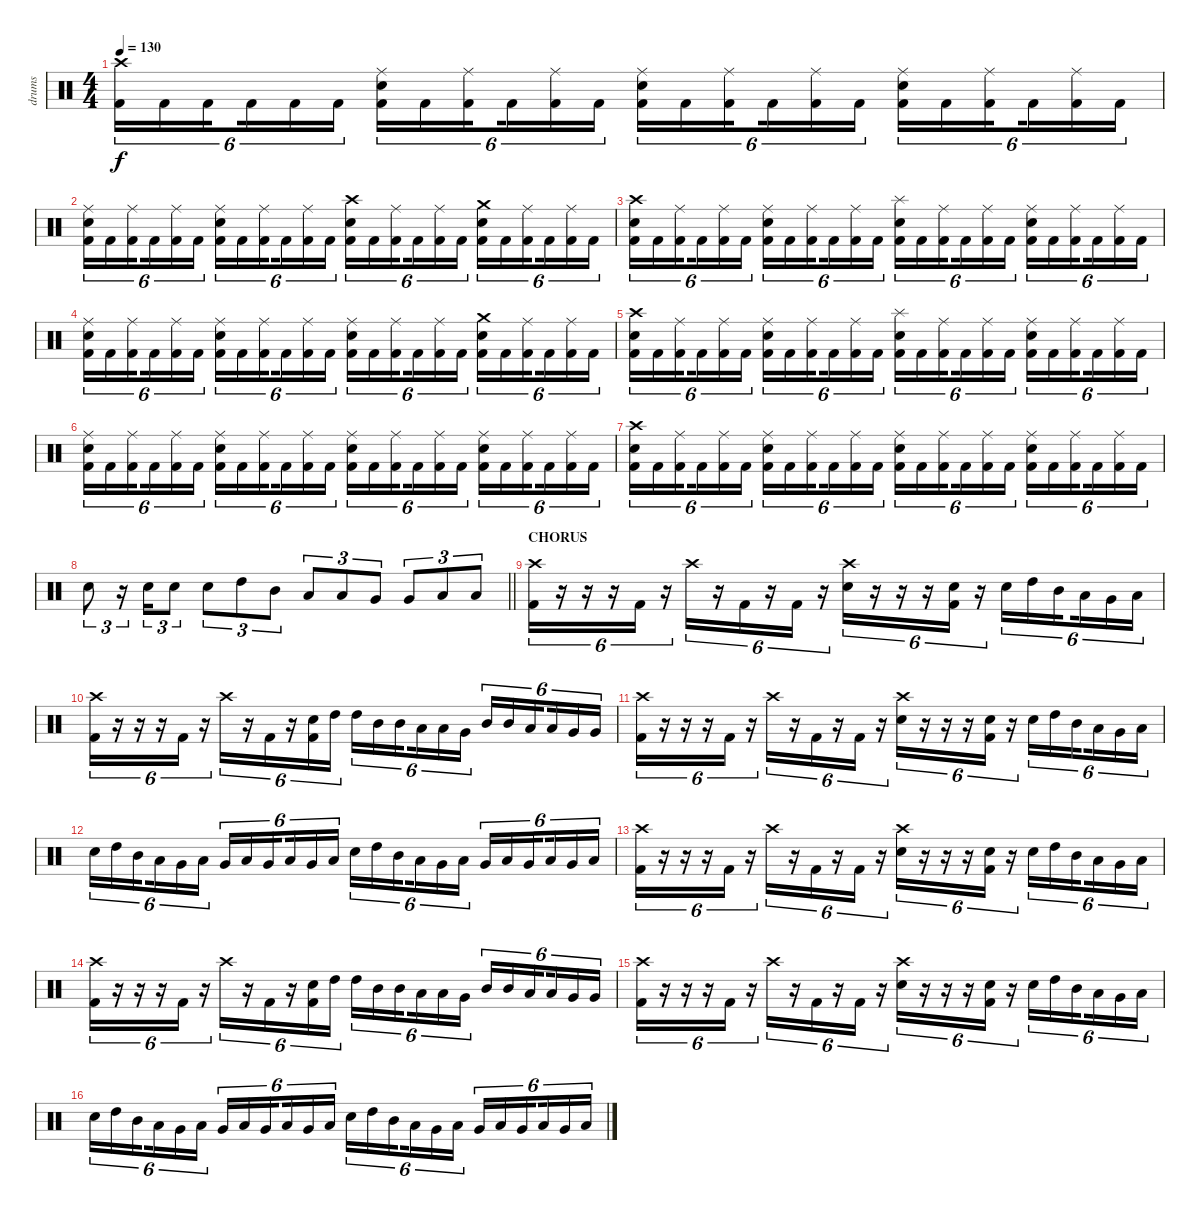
\track ("drums" "drums") {instrument percussion}
\staff {score}
\articulation defaults
\ts (4 4)
\tempo 130
\clef neutral
\ks c
("Crash high (hit)" "Kick (hit) 2").16{tu (6 4) dy f} "Kick (hit) 2".16{tu (6 4)} "Kick (hit) 2".16{tu (6 4) beam splitsecondary} "Kick (hit) 2".16{tu (6 4)} "Kick (hit) 2".16{tu (6 4)} "Kick (hit) 2".16{tu (6 4)} ("Ride (middle)" "Electric Snare (hit)" "Kick (hit) 2").16{tu (6 4)} "Kick (hit) 2".16{tu (6 4)} ("Ride (middle)" "Kick (hit) 2").16{tu (6 4) beam splitsecondary} "Kick (hit) 2".16{tu (6 4)} ("Ride (middle)" "Kick (hit) 2").16{tu (6 4)} "Kick (hit) 2".16{tu (6 4)} ("Ride (middle)" "Electric Snare (hit)" "Kick (hit) 2").16{tu (6 4)} "Kick (hit) 2".16{tu (6 4)} ("Ride (middle)" "Kick (hit) 2").16{tu (6 4) beam splitsecondary} "Kick (hit) 2".16{tu (6 4)} ("Ride (middle)" "Kick (hit) 2").16{tu (6 4)} "Kick (hit) 2".16{tu (6 4)} ("Ride (middle)" "Electric Snare (hit)" "Kick (hit) 2").16{tu (6 4)} "Kick (hit) 2".16{tu (6 4)} ("Ride (middle)" "Kick (hit) 2").16{tu (6 4) beam splitsecondary} "Kick (hit) 2".16{tu (6 4)} ("Ride (middle)" "Kick (hit) 2").16{tu (6 4)} "Kick (hit) 2".16{tu (6 4)} |
("Ride (middle)" "Electric Snare (hit)" "Kick (hit) 2").16{tu (6 4)} "Kick (hit) 2".16{tu (6 4)} ("Ride (middle)" "Kick (hit) 2").16{tu (6 4) beam splitsecondary} "Kick (hit) 2".16{tu (6 4)} ("Ride (middle)" "Kick (hit) 2").16{tu (6 4)} "Kick (hit) 2".16{tu (6 4)} ("Ride (middle)" "Electric Snare (hit)" "Kick (hit) 2").16{tu (6 4)} "Kick (hit) 2".16{tu (6 4)} ("Ride (middle)" "Kick (hit) 2").16{tu (6 4) beam splitsecondary} "Kick (hit) 2".16{tu (6 4)} ("Ride (middle)" "Kick (hit) 2").16{tu (6 4)} "Kick (hit) 2".16{tu (6 4)} ("Crash high (hit)" "Electric Snare (hit)" "Kick (hit) 2").16{tu (6 4)} "Kick (hit) 2".16{tu (6 4)} ("Ride (middle)" "Kick (hit) 2").16{tu (6 4) beam splitsecondary} "Kick (hit) 2".16{tu (6 4)} ("Ride (middle)" "Kick (hit) 2").16{tu (6 4)} "Kick (hit) 2".16{tu (6 4)} ("Crash medium (hit)" "Electric Snare (hit)" "Kick (hit) 2").16{tu (6 4)} "Kick (hit) 2".16{tu (6 4)} ("Ride (middle)" "Kick (hit) 2").16{tu (6 4) beam splitsecondary} "Kick (hit) 2".16{tu (6 4)} ("Ride (middle)" "Kick (hit) 2").16{tu (6 4)} "Kick (hit) 2".16{tu (6 4)} |
("Crash high (hit)" "Electric Snare (hit)" "Kick (hit) 2").16{tu (6 4)} "Kick (hit) 2".16{tu (6 4)} ("Ride (middle)" "Kick (hit) 2").16{tu (6 4) beam splitsecondary} "Kick (hit) 2".16{tu (6 4)} ("Ride (middle)" "Kick (hit) 2").16{tu (6 4)} "Kick (hit) 2".16{tu (6 4)} ("Ride (middle)" "Electric Snare (hit)" "Kick (hit) 2").16{tu (6 4)} "Kick (hit) 2".16{tu (6 4)} ("Ride (middle)" "Kick (hit) 2").16{tu (6 4) beam splitsecondary} "Kick (hit) 2".16{tu (6 4)} ("Ride (middle)" "Kick (hit) 2").16{tu (6 4)} "Kick (hit) 2".16{tu (6 4)} ("Splash (hit)" "Electric Snare (hit)" "Kick (hit) 2").16{tu (6 4)} "Kick (hit) 2".16{tu (6 4)} ("Ride (middle)" "Kick (hit) 2").16{tu (6 4) beam splitsecondary} "Kick (hit) 2".16{tu (6 4)} ("Ride (middle)" "Kick (hit) 2").16{tu (6 4)} "Kick (hit) 2".16{tu (6 4)} ("Ride (middle)" "Electric Snare (hit)" "Kick (hit) 2").16{tu (6 4)} "Kick (hit) 2".16{tu (6 4)} ("Ride (middle)" "Kick (hit) 2").16{tu (6 4) beam splitsecondary} "Kick (hit) 2".16{tu (6 4)} ("Ride (middle)" "Kick (hit) 2").16{tu (6 4)} "Kick (hit) 2".16{tu (6 4)} |
("Ride (middle)" "Electric Snare (hit)" "Kick (hit) 2").16{tu (6 4)} "Kick (hit) 2".16{tu (6 4)} ("Ride (middle)" "Kick (hit) 2").16{tu (6 4) beam splitsecondary} "Kick (hit) 2".16{tu (6 4)} ("Ride (middle)" "Kick (hit) 2").16{tu (6 4)} "Kick (hit) 2".16{tu (6 4)} ("Ride (middle)" "Electric Snare (hit)" "Kick (hit) 2").16{tu (6 4)} "Kick (hit) 2".16{tu (6 4)} ("Ride (middle)" "Kick (hit) 2").16{tu (6 4) beam splitsecondary} "Kick (hit) 2".16{tu (6 4)} ("Ride (middle)" "Kick (hit) 2").16{tu (6 4)} "Kick (hit) 2".16{tu (6 4)} ("Ride (middle)" "Electric Snare (hit)" "Kick (hit) 2").16{tu (6 4)} "Kick (hit) 2".16{tu (6 4)} ("Ride (middle)" "Kick (hit) 2").16{tu (6 4) beam splitsecondary} "Kick (hit) 2".16{tu (6 4)} ("Ride (middle)" "Kick (hit) 2").16{tu (6 4)} "Kick (hit) 2".16{tu (6 4)} ("Crash medium (hit)" "Electric Snare (hit)" "Kick (hit) 2").16{tu (6 4)} "Kick (hit) 2".16{tu (6 4)} ("Ride (middle)" "Kick (hit) 2").16{tu (6 4) beam splitsecondary} "Kick (hit) 2".16{tu (6 4)} ("Ride (middle)" "Kick (hit) 2").16{tu (6 4)} "Kick (hit) 2".16{tu (6 4)} |
("Crash high (hit)" "Electric Snare (hit)" "Kick (hit) 2").16{tu (6 4)} "Kick (hit) 2".16{tu (6 4)} ("Ride (middle)" "Kick (hit) 2").16{tu (6 4) beam splitsecondary} "Kick (hit) 2".16{tu (6 4)} ("Ride (middle)" "Kick (hit) 2").16{tu (6 4)} "Kick (hit) 2".16{tu (6 4)} ("Ride (middle)" "Electric Snare (hit)" "Kick (hit) 2").16{tu (6 4)} "Kick (hit) 2".16{tu (6 4)} ("Ride (middle)" "Kick (hit) 2").16{tu (6 4) beam splitsecondary} "Kick (hit) 2".16{tu (6 4)} ("Ride (middle)" "Kick (hit) 2").16{tu (6 4)} "Kick (hit) 2".16{tu (6 4)} ("Splash (hit)" "Electric Snare (hit)" "Kick (hit) 2").16{tu (6 4)} "Kick (hit) 2".16{tu (6 4)} ("Ride (middle)" "Kick (hit) 2").16{tu (6 4) beam splitsecondary} "Kick (hit) 2".16{tu (6 4)} ("Ride (middle)" "Kick (hit) 2").16{tu (6 4)} "Kick (hit) 2".16{tu (6 4)} ("Ride (middle)" "Electric Snare (hit)" "Kick (hit) 2").16{tu (6 4)} "Kick (hit) 2".16{tu (6 4)} ("Ride (middle)" "Kick (hit) 2").16{tu (6 4) beam splitsecondary} "Kick (hit) 2".16{tu (6 4)} ("Ride (middle)" "Kick (hit) 2").16{tu (6 4)} "Kick (hit) 2".16{tu (6 4)} |
("Ride (middle)" "Electric Snare (hit)" "Kick (hit) 2").16{tu (6 4)} "Kick (hit) 2".16{tu (6 4)} ("Ride (middle)" "Kick (hit) 2").16{tu (6 4) beam splitsecondary} "Kick (hit) 2".16{tu (6 4)} ("Ride (middle)" "Kick (hit) 2").16{tu (6 4)} "Kick (hit) 2".16{tu (6 4)} ("Ride (middle)" "Electric Snare (hit)" "Kick (hit) 2").16{tu (6 4)} "Kick (hit) 2".16{tu (6 4)} ("Ride (middle)" "Kick (hit) 2").16{tu (6 4) beam splitsecondary} "Kick (hit) 2".16{tu (6 4)} ("Ride (middle)" "Kick (hit) 2").16{tu (6 4)} "Kick (hit) 2".16{tu (6 4)} ("Ride (middle)" "Electric Snare (hit)" "Kick (hit) 2").16{tu (6 4)} "Kick (hit) 2".16{tu (6 4)} ("Ride (middle)" "Kick (hit) 2").16{tu (6 4) beam splitsecondary} "Kick (hit) 2".16{tu (6 4)} ("Ride (middle)" "Kick (hit) 2").16{tu (6 4)} "Kick (hit) 2".16{tu (6 4)} ("Ride (middle)" "Electric Snare (hit)" "Kick (hit) 2").16{tu (6 4)} "Kick (hit) 2".16{tu (6 4)} ("Ride (middle)" "Kick (hit) 2").16{tu (6 4) beam splitsecondary} "Kick (hit) 2".16{tu (6 4)} ("Ride (middle)" "Kick (hit) 2").16{tu (6 4)} "Kick (hit) 2".16{tu (6 4)} |
("Crash high (hit)" "Electric Snare (hit)" "Kick (hit) 2").16{tu (6 4)} "Kick (hit) 2".16{tu (6 4)} ("Ride (middle)" "Kick (hit) 2").16{tu (6 4) beam splitsecondary} "Kick (hit) 2".16{tu (6 4)} ("Ride (middle)" "Kick (hit) 2").16{tu (6 4)} "Kick (hit) 2".16{tu (6 4)} ("Ride (middle)" "Electric Snare (hit)" "Kick (hit) 2").16{tu (6 4)} "Kick (hit) 2".16{tu (6 4)} ("Ride (middle)" "Kick (hit) 2").16{tu (6 4) beam splitsecondary} "Kick (hit) 2".16{tu (6 4)} ("Ride (middle)" "Kick (hit) 2").16{tu (6 4)} "Kick (hit) 2".16{tu (6 4)} ("Ride (middle)" "Electric Snare (hit)" "Kick (hit) 2").16{tu (6 4)} "Kick (hit) 2".16{tu (6 4)} ("Ride (middle)" "Kick (hit) 2").16{tu (6 4) beam splitsecondary} "Kick (hit) 2".16{tu (6 4)} ("Ride (middle)" "Kick (hit) 2").16{tu (6 4)} "Kick (hit) 2".16{tu (6 4)} ("Ride (middle)" "Electric Snare (hit)" "Kick (hit) 2").16{tu (6 4)} "Kick (hit) 2".16{tu (6 4)} ("Ride (middle)" "Kick (hit) 2").16{tu (6 4) beam splitsecondary} "Kick (hit) 2".16{tu (6 4)} ("Ride (middle)" "Kick (hit) 2").16{tu (6 4)} "Kick (hit) 2".16{tu (6 4)} |
\barLineRight lightlight "Electric Snare (hit)".8{tu (3 2)}
r.16{tu (3 2)} "Electric Snare (hit)".16{tu (3 2)} "Electric Snare (hit)".8{tu (3 2)} "Electric Snare (hit)".8{tu (3 2)} "High Tom (hit)".8{tu (3 2)} "Mid Tom (hit)".8{tu (3 2)} "Low Tom (hit)".8{tu (3 2)} "Low Tom (hit)".8{tu (3 2)} "Very Low Tom (hit)".8{tu (3 2)} "Very Low Tom (hit)".8{tu (3 2)} "Low Floor Tom (hit)".8{tu (3 2)} "Low Floor Tom (hit)".8{tu (3 2)} |
\section ("" "CHORUS")
("Crash high (hit)" "Kick (hit) 2").16{tu (6 4)} r.16{tu (6 4)} r.16{tu (6 4)} r.16{tu (6 4)} "Kick (hit) 2".16{tu (6 4)} r.16{tu (6 4)} "Crash high (hit)".16{tu (6 4)} r.16{tu (6 4)} "Kick (hit) 2".16{tu (6 4)} r.16{tu (6 4)} "Kick (hit) 2".16{tu (6 4)} r.16{tu (6 4)} ("Crash high (hit)" "Electric Snare (hit)").16{tu (6 4)} r.16{tu (6 4)} r.16{tu (6 4)} r.16{tu (6 4)} ("Electric Snare (hit)" "Kick (hit) 2").16{tu (6 4)} r.16{tu (6 4)} "Electric Snare (hit)".16{tu (6 4)} "High Tom (hit)".16{tu (6 4)} "Mid Tom (hit)".16{tu (6 4) beam splitsecondary} "Low Tom (hit)".16{tu (6 4)} "Very Low Tom (hit)".16{tu (6 4)} "Low Floor Tom (hit)".16{tu (6 4)} |
("Crash high (hit)" "Kick (hit) 2").16{tu (6 4)} r.16{tu (6 4)} r.16{tu (6 4)} r.16{tu (6 4)} "Kick (hit) 2".16{tu (6 4)} r.16{tu (6 4)} "Crash high (hit)".16{tu (6 4)} r.16{tu (6 4)} "Kick (hit) 2".16{tu (6 4)} r.16{tu (6 4)} ("Electric Snare (hit)" "Kick (hit) 2").16{tu (6 4)} "High Tom (hit)".16{tu (6 4)} "High Tom (hit)".16{tu (6 4)} "Mid Tom (hit)".16{tu (6 4)} "Mid Tom (hit)".16{tu (6 4) beam splitsecondary} "Low Tom (hit)".16{tu (6 4)} "Low Tom (hit)".16{tu (6 4)} "Very Low Tom (hit)".16{tu (6 4)} "Mid Tom (hit)".16{tu (6 4)} "Mid Tom (hit)".16{tu (6 4)} "Low Tom (hit)".16{tu (6 4) beam splitsecondary} "Low Tom (hit)".16{tu (6 4)} "Very Low Tom (hit)".16{tu (6 4)} "Very Low Tom (hit)".16{tu (6 4)} |
("Crash high (hit)" "Kick (hit) 2").16{tu (6 4)} r.16{tu (6 4)} r.16{tu (6 4)} r.16{tu (6 4)} "Kick (hit) 2".16{tu (6 4)} r.16{tu (6 4)} "Crash high (hit)".16{tu (6 4)} r.16{tu (6 4)} "Kick (hit) 2".16{tu (6 4)} r.16{tu (6 4)} "Kick (hit) 2".16{tu (6 4)} r.16{tu (6 4)} ("Crash high (hit)" "Electric Snare (hit)").16{tu (6 4)} r.16{tu (6 4)} r.16{tu (6 4)} r.16{tu (6 4)} ("Electric Snare (hit)" "Kick (hit) 2").16{tu (6 4)} r.16{tu (6 4)} "Electric Snare (hit)".16{tu (6 4)} "High Tom (hit)".16{tu (6 4)} "Mid Tom (hit)".16{tu (6 4) beam splitsecondary} "Low Tom (hit)".16{tu (6 4)} "Very Low Tom (hit)".16{tu (6 4)} "Low Floor Tom (hit)".16{tu (6 4)} |
"Electric Snare (hit)".16{tu (6 4)} "High Tom (hit)".16{tu (6 4)} "Mid Tom (hit)".16{tu (6 4) beam splitsecondary} "Low Tom (hit)".16{tu (6 4)} "Very Low Tom (hit)".16{tu (6 4)} "Low Floor Tom (hit)".16{tu (6 4)} "Very Low Tom (hit)".16{tu (6 4)} "Low Tom (hit)".16{tu (6 4)} "Very Low Tom (hit)".16{tu (6 4) beam splitsecondary} "Low Floor Tom (hit)".16{tu (6 4)} "Very Low Tom (hit)".16{tu (6 4)} "Low Tom (hit)".16{tu (6 4)} "Electric Snare (hit)".16{tu (6 4)} "High Tom (hit)".16{tu (6 4)} "Mid Tom (hit)".16{tu (6 4) beam splitsecondary} "Low Tom (hit)".16{tu (6 4)} "Very Low Tom (hit)".16{tu (6 4)} "Low Floor Tom (hit)".16{tu (6 4)} "Very Low Tom (hit)".16{tu (6 4)} "Low Tom (hit)".16{tu (6 4)} "Very Low Tom (hit)".16{tu (6 4) beam splitsecondary} "Low Floor Tom (hit)".16{tu (6 4)} "Very Low Tom (hit)".16{tu (6 4)} "Low Tom (hit)".16{tu (6 4)} |
("Crash high (hit)" "Kick (hit) 2").16{tu (6 4)} r.16{tu (6 4)} r.16{tu (6 4)} r.16{tu (6 4)} "Kick (hit) 2".16{tu (6 4)} r.16{tu (6 4)} "Crash high (hit)".16{tu (6 4)} r.16{tu (6 4)} "Kick (hit) 2".16{tu (6 4)} r.16{tu (6 4)} "Kick (hit) 2".16{tu (6 4)} r.16{tu (6 4)} ("Crash high (hit)" "Electric Snare (hit)").16{tu (6 4)} r.16{tu (6 4)} r.16{tu (6 4)} r.16{tu (6 4)} ("Electric Snare (hit)" "Kick (hit) 2").16{tu (6 4)} r.16{tu (6 4)} "Electric Snare (hit)".16{tu (6 4)} "High Tom (hit)".16{tu (6 4)} "Mid Tom (hit)".16{tu (6 4) beam splitsecondary} "Low Tom (hit)".16{tu (6 4)} "Very Low Tom (hit)".16{tu (6 4)} "Low Floor Tom (hit)".16{tu (6 4)} |
("Crash high (hit)" "Kick (hit) 2").16{tu (6 4)} r.16{tu (6 4)} r.16{tu (6 4)} r.16{tu (6 4)} "Kick (hit) 2".16{tu (6 4)} r.16{tu (6 4)} "Crash high (hit)".16{tu (6 4)} r.16{tu (6 4)} "Kick (hit) 2".16{tu (6 4)} r.16{tu (6 4)} ("Electric Snare (hit)" "Kick (hit) 2").16{tu (6 4)} "High Tom (hit)".16{tu (6 4)} "High Tom (hit)".16{tu (6 4)} "Mid Tom (hit)".16{tu (6 4)} "Mid Tom (hit)".16{tu (6 4) beam splitsecondary} "Low Tom (hit)".16{tu (6 4)} "Low Tom (hit)".16{tu (6 4)} "Very Low Tom (hit)".16{tu (6 4)} "Mid Tom (hit)".16{tu (6 4)} "Mid Tom (hit)".16{tu (6 4)} "Low Tom (hit)".16{tu (6 4) beam splitsecondary} "Low Tom (hit)".16{tu (6 4)} "Very Low Tom (hit)".16{tu (6 4)} "Very Low Tom (hit)".16{tu (6 4)} |
("Crash high (hit)" "Kick (hit) 2").16{tu (6 4)} r.16{tu (6 4)} r.16{tu (6 4)} r.16{tu (6 4)} "Kick (hit) 2".16{tu (6 4)} r.16{tu (6 4)} "Crash high (hit)".16{tu (6 4)} r.16{tu (6 4)} "Kick (hit) 2".16{tu (6 4)} r.16{tu (6 4)} "Kick (hit) 2".16{tu (6 4)} r.16{tu (6 4)} ("Crash high (hit)" "Electric Snare (hit)").16{tu (6 4)} r.16{tu (6 4)} r.16{tu (6 4)} r.16{tu (6 4)} ("Electric Snare (hit)" "Kick (hit) 2").16{tu (6 4)} r.16{tu (6 4)} "Electric Snare (hit)".16{tu (6 4)} "High Tom (hit)".16{tu (6 4)} "Mid Tom (hit)".16{tu (6 4) beam splitsecondary} "Low Tom (hit)".16{tu (6 4)} "Very Low Tom (hit)".16{tu (6 4)} "Low Floor Tom (hit)".16{tu (6 4)} |
"Electric Snare (hit)".16{tu (6 4)} "High Tom (hit)".16{tu (6 4)} "Mid Tom (hit)".16{tu (6 4) beam splitsecondary} "Low Tom (hit)".16{tu (6 4)} "Very Low Tom (hit)".16{tu (6 4)} "Low Floor Tom (hit)".16{tu (6 4)} "Very Low Tom (hit)".16{tu (6 4)} "Low Tom (hit)".16{tu (6 4)} "Very Low Tom (hit)".16{tu (6 4) beam splitsecondary} "Low Floor Tom (hit)".16{tu (6 4)} "Very Low Tom (hit)".16{tu (6 4)} "Low Tom (hit)".16{tu (6 4)} "Electric Snare (hit)".16{tu (6 4)} "High Tom (hit)".16{tu (6 4)} "Mid Tom (hit)".16{tu (6 4) beam splitsecondary} "Low Tom (hit)".16{tu (6 4)} "Very Low Tom (hit)".16{tu (6 4)} "Low Floor Tom (hit)".16{tu (6 4)} "Very Low Tom (hit)".16{tu (6 4)} "Low Tom (hit)".16{tu (6 4)} "Very Low Tom (hit)".16{tu (6 4) beam splitsecondary} "Low Floor Tom (hit)".16{tu (6 4)} "Very Low Tom (hit)".16{tu (6 4)} "Low Tom (hit)".16{tu (6 4)}
